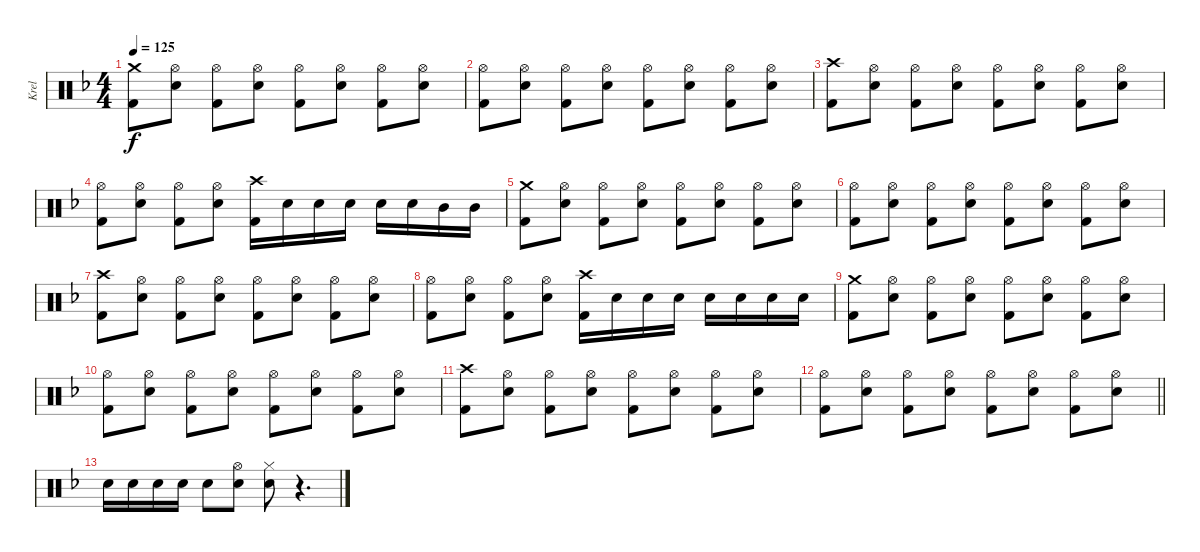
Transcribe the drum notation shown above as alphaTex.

\track ("Krel" "Krel") {instrument percussion}
\staff {score}
\articulation defaults
\ts (4 4)
\tempo 125
\clef neutral
\ks f
("Crash medium (hit)" "Kick (hit) 2").8{dy f} ("Hi-Hat (open)" "Snare (hit) 2").8 ("Hi-Hat (open)" "Kick (hit) 2").8 ("Hi-Hat (open)" "Snare (hit) 2").8 ("Hi-Hat (open)" "Kick (hit) 2").8 ("Hi-Hat (open)" "Snare (hit) 2").8 ("Hi-Hat (open)" "Kick (hit) 2").8 ("Hi-Hat (open)" "Snare (hit) 2").8 |
("Hi-Hat (open)" "Kick (hit) 2").8 ("Hi-Hat (open)" "Snare (hit) 2").8 ("Hi-Hat (open)" "Kick (hit) 2").8 ("Hi-Hat (open)" "Snare (hit) 2").8 ("Hi-Hat (open)" "Kick (hit) 2").8 ("Hi-Hat (open)" "Snare (hit) 2").8 ("Hi-Hat (open)" "Kick (hit) 2").8 ("Hi-Hat (open)" "Snare (hit) 2").8 |
("Crash high (hit)" "Kick (hit) 2").8 ("Hi-Hat (open)" "Snare (hit) 2").8 ("Hi-Hat (open)" "Kick (hit) 2").8 ("Hi-Hat (open)" "Snare (hit) 2").8 ("Hi-Hat (open)" "Kick (hit) 2").8 ("Hi-Hat (open)" "Snare (hit) 2").8 ("Hi-Hat (open)" "Kick (hit) 2").8 ("Hi-Hat (open)" "Snare (hit) 2").8 |
("Hi-Hat (open)" "Kick (hit) 2").8 ("Hi-Hat (open)" "Snare (hit) 2").8 ("Hi-Hat (open)" "Kick (hit) 2").8 ("Hi-Hat (open)" "Snare (hit) 2").8 ("Crash high (hit)" "Kick (hit) 2").16 "Snare (hit) 2".16 "Snare (hit) 2".16 "Snare (hit) 2".16 "Snare (hit) 2".16 "Snare (hit) 2".16 "Mid Tom (hit)".16 "Mid Tom (hit)".16 |
("Crash medium (hit)" "Kick (hit) 2").8 ("Hi-Hat (open)" "Snare (hit) 2").8 ("Hi-Hat (open)" "Kick (hit) 2").8 ("Hi-Hat (open)" "Snare (hit) 2").8 ("Hi-Hat (open)" "Kick (hit) 2").8 ("Hi-Hat (open)" "Snare (hit) 2").8 ("Hi-Hat (open)" "Kick (hit) 2").8 ("Hi-Hat (open)" "Snare (hit) 2").8 |
("Hi-Hat (open)" "Kick (hit) 2").8 ("Hi-Hat (open)" "Snare (hit) 2").8 ("Hi-Hat (open)" "Kick (hit) 2").8 ("Hi-Hat (open)" "Snare (hit) 2").8 ("Hi-Hat (open)" "Kick (hit) 2").8 ("Hi-Hat (open)" "Snare (hit) 2").8 ("Hi-Hat (open)" "Kick (hit) 2").8 ("Hi-Hat (open)" "Snare (hit) 2").8 |
("Crash high (hit)" "Kick (hit) 2").8 ("Hi-Hat (open)" "Snare (hit) 2").8 ("Hi-Hat (open)" "Kick (hit) 2").8 ("Hi-Hat (open)" "Snare (hit) 2").8 ("Hi-Hat (open)" "Kick (hit) 2").8 ("Hi-Hat (open)" "Snare (hit) 2").8 ("Hi-Hat (open)" "Kick (hit) 2").8 ("Hi-Hat (open)" "Snare (hit) 2").8 |
("Hi-Hat (open)" "Kick (hit) 2").8 ("Hi-Hat (open)" "Snare (hit) 2").8 ("Hi-Hat (open)" "Kick (hit) 2").8 ("Hi-Hat (open)" "Snare (hit) 2").8 ("Crash high (hit)" "Kick (hit) 2").16 "Snare (hit) 2".16 "Snare (hit) 2".16 "Snare (hit) 2".16 "Snare (hit) 2".16 "Snare (hit) 2".16 "Snare (hit) 2".16 "Snare (hit) 2".16 |
("Crash medium (hit)" "Kick (hit) 2").8 ("Hi-Hat (open)" "Snare (hit) 2").8 ("Hi-Hat (open)" "Kick (hit) 2").8 ("Hi-Hat (open)" "Snare (hit) 2").8 ("Hi-Hat (open)" "Kick (hit) 2").8 ("Hi-Hat (open)" "Snare (hit) 2").8 ("Hi-Hat (open)" "Kick (hit) 2").8 ("Hi-Hat (open)" "Snare (hit) 2").8 |
("Hi-Hat (open)" "Kick (hit) 2").8 ("Hi-Hat (open)" "Snare (hit) 2").8 ("Hi-Hat (open)" "Kick (hit) 2").8 ("Hi-Hat (open)" "Snare (hit) 2").8 ("Hi-Hat (open)" "Kick (hit) 2").8 ("Hi-Hat (open)" "Snare (hit) 2").8 ("Hi-Hat (open)" "Kick (hit) 2").8 ("Hi-Hat (open)" "Snare (hit) 2").8 |
("Crash high (hit)" "Kick (hit) 2").8 ("Hi-Hat (open)" "Snare (hit) 2").8 ("Hi-Hat (open)" "Kick (hit) 2").8 ("Hi-Hat (open)" "Snare (hit) 2").8 ("Hi-Hat (open)" "Kick (hit) 2").8 ("Hi-Hat (open)" "Snare (hit) 2").8 ("Hi-Hat (open)" "Kick (hit) 2").8 ("Hi-Hat (open)" "Snare (hit) 2").8 |
\barLineRight lightlight
("Hi-Hat (open)" "Kick (hit) 2").8 ("Hi-Hat (open)" "Snare (hit) 2").8 ("Hi-Hat (open)" "Kick (hit) 2").8 ("Hi-Hat (open)" "Snare (hit) 2").8 ("Hi-Hat (open)" "Kick (hit) 2").8 ("Hi-Hat (open)" "Snare (hit) 2").8 ("Hi-Hat (open)" "Kick (hit) 2").8 ("Hi-Hat (open)" "Snare (hit) 2").8 |
"Snare (hit) 2".16 "Snare (hit) 2".16 "Snare (hit) 2".16 "Snare (hit) 2".16 "Snare (hit) 2".8 ("Hi-Hat (open)" "Snare (hit) 2").8 ("Hi-Hat (closed)" "Snare (hit) 2").8 r.4{d}
